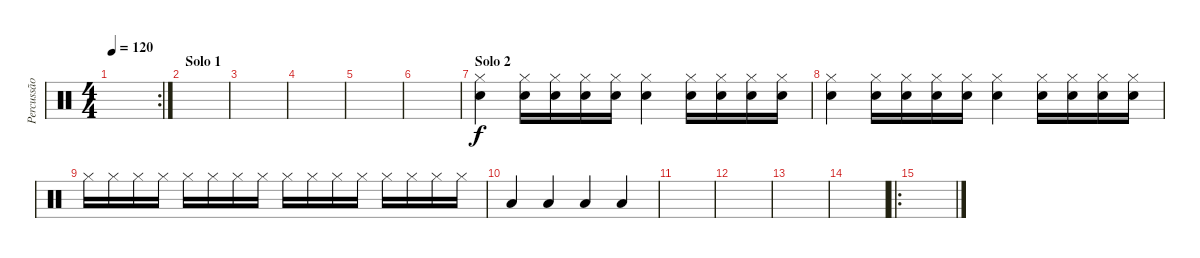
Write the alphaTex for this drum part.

\track ("Percussão" "Percussão") {instrument percussion}
\staff {score}
\articulation defaults
\rc 2
\ts (4 4)
\tempo 120
\clef neutral
\ks c
|
\section ("" "Solo 1")
|
|
|
|
|
\section ("" "Solo 2")
("Hi-Hat (closed)" "Electric Snare (hit)").4 ("Electric Snare (hit)" "Hi-Hat (closed)").16 ("Electric Snare (hit)" "Hi-Hat (closed)").16 ("Electric Snare (hit)" "Hi-Hat (closed)").16 ("Electric Snare (hit)" "Hi-Hat (closed)").16 ("Hi-Hat (closed)" "Electric Snare (hit)").4 ("Electric Snare (hit)" "Hi-Hat (closed)").16 ("Electric Snare (hit)" "Hi-Hat (closed)").16 ("Electric Snare (hit)" "Hi-Hat (closed)").16 ("Electric Snare (hit)" "Hi-Hat (closed)").16 |
("Electric Snare (hit)" "Hi-Hat (closed)").4 ("Hi-Hat (closed)" "Electric Snare (hit)").16 ("Hi-Hat (closed)" "Electric Snare (hit)").16 ("Hi-Hat (closed)" "Electric Snare (hit)").16 ("Hi-Hat (closed)" "Electric Snare (hit)").16 ("Hi-Hat (closed)" "Electric Snare (hit)").4 ("Hi-Hat (closed)" "Electric Snare (hit)").16 ("Hi-Hat (closed)" "Electric Snare (hit)").16 ("Hi-Hat (closed)" "Electric Snare (hit)").16 ("Hi-Hat (closed)" "Electric Snare (hit)").16 |
"Hi-Hat (closed)".16 "Hi-Hat (closed)".16 "Hi-Hat (closed)".16 "Hi-Hat (closed)".16 "Hi-Hat (closed)".16 "Hi-Hat (closed)".16 "Hi-Hat (closed)".16 "Hi-Hat (closed)".16 "Hi-Hat (closed)".16 "Hi-Hat (closed)".16 "Hi-Hat (closed)".16 "Hi-Hat (closed)".16 "Hi-Hat (closed)".16 "Hi-Hat (closed)".16 "Hi-Hat (closed)".16 "Hi-Hat (closed)".16 |
"Low Tom (hit)".4 "Low Tom (hit)".4 "Low Tom (hit)".4 "Low Tom (hit)".4 |
|
|
|
|
\ro
